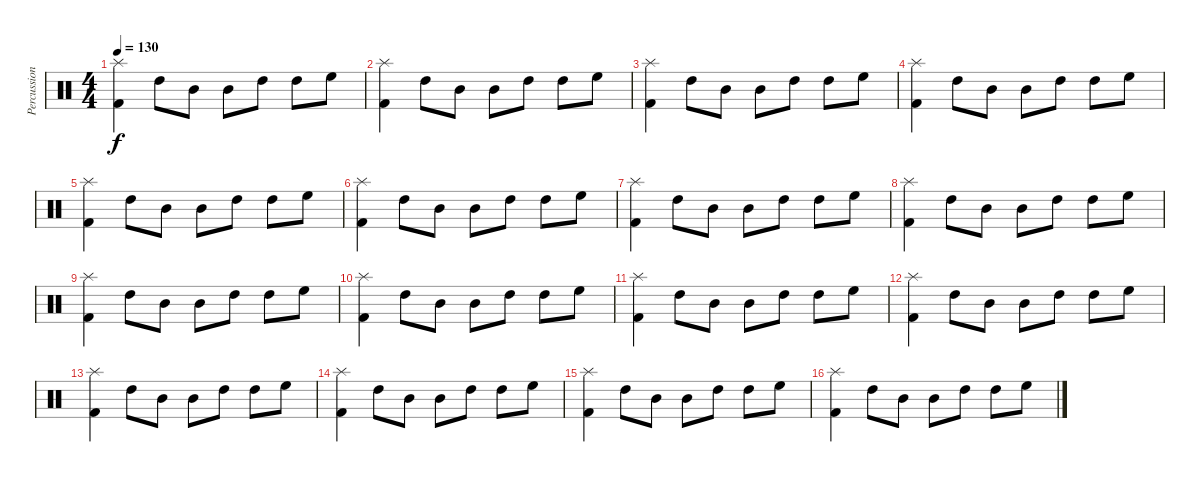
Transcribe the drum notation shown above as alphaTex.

\track ("Percussion" "Percussion") {instrument percussion}
\staff {score}
\articulation defaults
\ts (4 4)
\tempo 130
\clef neutral
\ks c
("Splash (hit)" "Kick (hit) 2").4{dy f} "High Tom (hit)".8 "Mid Tom (hit)".8 "Mid Tom (hit)".8 "High Tom (hit)".8 "High Tom (hit)".8 "High Floor Tom (hit)".8 |
("Splash (hit)" "Kick (hit) 2").4 "High Tom (hit)".8 "Mid Tom (hit)".8 "Mid Tom (hit)".8 "High Tom (hit)".8 "High Tom (hit)".8 "High Floor Tom (hit)".8 |
("Splash (hit)" "Kick (hit) 2").4 "High Tom (hit)".8 "Mid Tom (hit)".8 "Mid Tom (hit)".8 "High Tom (hit)".8 "High Tom (hit)".8 "High Floor Tom (hit)".8 |
("Splash (hit)" "Kick (hit) 2").4 "High Tom (hit)".8 "Mid Tom (hit)".8 "Mid Tom (hit)".8 "High Tom (hit)".8 "High Tom (hit)".8 "High Floor Tom (hit)".8 |
("Splash (hit)" "Kick (hit) 2").4 "High Tom (hit)".8 "Mid Tom (hit)".8 "Mid Tom (hit)".8 "High Tom (hit)".8 "High Tom (hit)".8 "High Floor Tom (hit)".8 |
("Splash (hit)" "Kick (hit) 2").4 "High Tom (hit)".8 "Mid Tom (hit)".8 "Mid Tom (hit)".8 "High Tom (hit)".8 "High Tom (hit)".8 "High Floor Tom (hit)".8 |
("Splash (hit)" "Kick (hit) 2").4 "High Tom (hit)".8 "Mid Tom (hit)".8 "Mid Tom (hit)".8 "High Tom (hit)".8 "High Tom (hit)".8 "High Floor Tom (hit)".8 |
("Splash (hit)" "Kick (hit) 2").4 "High Tom (hit)".8 "Mid Tom (hit)".8 "Mid Tom (hit)".8 "High Tom (hit)".8 "High Tom (hit)".8 "High Floor Tom (hit)".8 |
("Splash (hit)" "Kick (hit) 2").4 "High Tom (hit)".8 "Mid Tom (hit)".8 "Mid Tom (hit)".8 "High Tom (hit)".8 "High Tom (hit)".8 "High Floor Tom (hit)".8 |
("Splash (hit)" "Kick (hit) 2").4 "High Tom (hit)".8 "Mid Tom (hit)".8 "Mid Tom (hit)".8 "High Tom (hit)".8 "High Tom (hit)".8 "High Floor Tom (hit)".8 |
("Splash (hit)" "Kick (hit) 2").4 "High Tom (hit)".8 "Mid Tom (hit)".8 "Mid Tom (hit)".8 "High Tom (hit)".8 "High Tom (hit)".8 "High Floor Tom (hit)".8 |
("Splash (hit)" "Kick (hit) 2").4 "High Tom (hit)".8 "Mid Tom (hit)".8 "Mid Tom (hit)".8 "High Tom (hit)".8 "High Tom (hit)".8 "High Floor Tom (hit)".8 |
("Splash (hit)" "Kick (hit) 2").4 "High Tom (hit)".8 "Mid Tom (hit)".8 "Mid Tom (hit)".8 "High Tom (hit)".8 "High Tom (hit)".8 "High Floor Tom (hit)".8 |
("Splash (hit)" "Kick (hit) 2").4 "High Tom (hit)".8 "Mid Tom (hit)".8 "Mid Tom (hit)".8 "High Tom (hit)".8 "High Tom (hit)".8 "High Floor Tom (hit)".8 |
("Splash (hit)" "Kick (hit) 2").4 "High Tom (hit)".8 "Mid Tom (hit)".8 "Mid Tom (hit)".8 "High Tom (hit)".8 "High Tom (hit)".8 "High Floor Tom (hit)".8 |
("Splash (hit)" "Kick (hit) 2").4 "High Tom (hit)".8 "Mid Tom (hit)".8 "Mid Tom (hit)".8 "High Tom (hit)".8 "High Tom (hit)".8 "High Floor Tom (hit)".8
